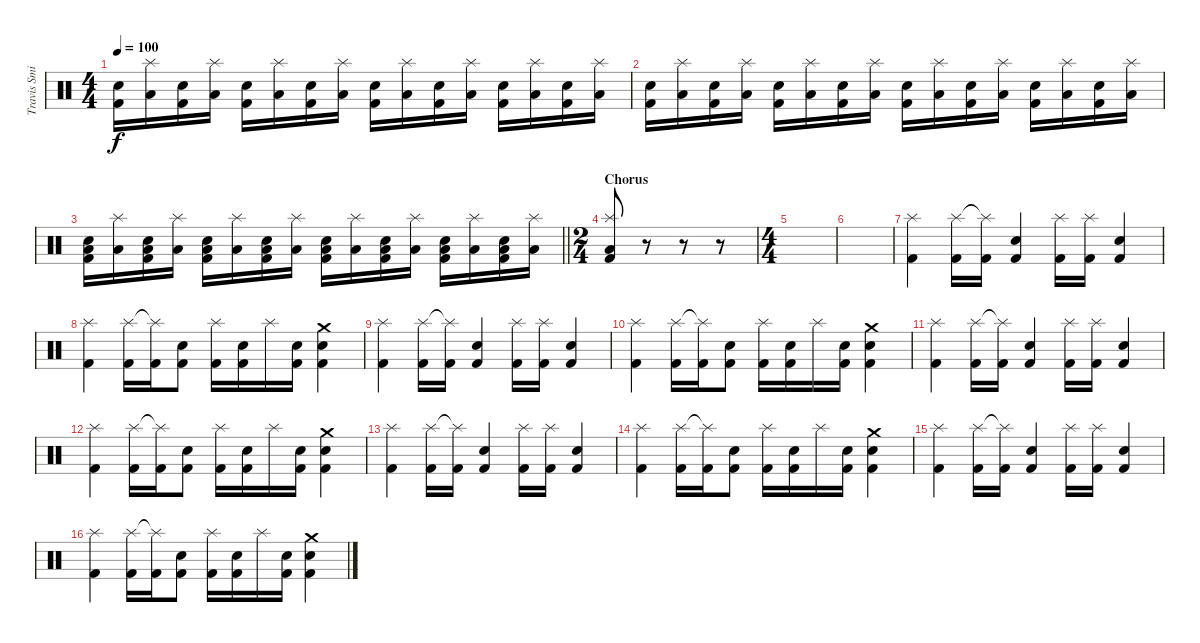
\track ("Travis Smith" "Travis Smi") {instrument percussion}
\staff {score}
\articulation defaults
\ts (4 4)
\tempo 100
\clef neutral
\ks c
("Snare (hit) 2" "Kick (hit) 2").16{dy f} ("Splash (hit)" "Low Floor Tom (hit)").16 ("Snare (hit) 2" "Kick (hit) 2").16 ("Splash (hit)" "Low Floor Tom (hit)").16 ("Snare (hit) 2" "Kick (hit) 2").16 ("Splash (hit)" "Low Floor Tom (hit)").16 ("Snare (hit) 2" "Kick (hit) 2").16 ("Splash (hit)" "Low Floor Tom (hit)").16 ("Snare (hit) 2" "Kick (hit) 2").16 ("Splash (hit)" "Low Floor Tom (hit)").16 ("Snare (hit) 2" "Kick (hit) 2").16 ("Splash (hit)" "Low Floor Tom (hit)").16 ("Snare (hit) 2" "Kick (hit) 2").16 ("Splash (hit)" "Low Floor Tom (hit)").16 ("Snare (hit) 2" "Kick (hit) 2").16 ("Splash (hit)" "Low Floor Tom (hit)").16 |
("Snare (hit) 2" "Kick (hit) 2").16 ("Splash (hit)" "Low Floor Tom (hit)").16 ("Snare (hit) 2" "Kick (hit) 2").16 ("Splash (hit)" "Low Floor Tom (hit)").16 ("Snare (hit) 2" "Kick (hit) 2").16 ("Splash (hit)" "Low Floor Tom (hit)").16 ("Snare (hit) 2" "Kick (hit) 2").16 ("Splash (hit)" "Low Floor Tom (hit)").16 ("Snare (hit) 2" "Kick (hit) 2").16 ("Splash (hit)" "Low Floor Tom (hit)").16 ("Snare (hit) 2" "Kick (hit) 2").16 ("Splash (hit)" "Low Floor Tom (hit)").16 ("Snare (hit) 2" "Kick (hit) 2").16 ("Splash (hit)" "Low Floor Tom (hit)").16 ("Snare (hit) 2" "Kick (hit) 2").16 ("Splash (hit)" "Low Floor Tom (hit)").16 |
\barLineRight lightlight
("Snare (hit) 2" "Low Tom (hit)" "Kick (hit) 2").16 ("Splash (hit)" "Low Tom (hit)").16 ("Snare (hit) 2" "Low Tom (hit)" "Kick (hit) 2").16 ("Splash (hit)" "Low Tom (hit)").16 ("Snare (hit) 2" "Low Tom (hit)" "Kick (hit) 2").16 ("Splash (hit)" "Low Tom (hit)").16 ("Snare (hit) 2" "Low Tom (hit)" "Kick (hit) 2").16 ("Splash (hit)" "Low Tom (hit)").16 ("Snare (hit) 2" "Low Tom (hit)" "Kick (hit) 2").16 ("Splash (hit)" "Low Tom (hit)").16 ("Snare (hit) 2" "Low Tom (hit)" "Kick (hit) 2").16 ("Splash (hit)" "Low Tom (hit)").16 ("Snare (hit) 2" "Low Tom (hit)" "Kick (hit) 2").16 ("Splash (hit)" "Low Tom (hit)").16 ("Snare (hit) 2" "Low Tom (hit)" "Kick (hit) 2").16 ("Splash (hit)" "Low Tom (hit)").16 |
\ts (2 4)
\section ("" "Chorus")
("Splash (hit)" "Low Floor Tom (hit)" "Kick (hit) 2").8 r.8 r.8 r.8 |
\ts (4 4)
|
|
("Splash (hit)" "Kick (hit) 2").4 ("Splash (hit)" "Kick (hit) 2").16 ("Splash (hit)"{t} "Kick (hit) 2").16 ("Snare (hit) 2" "Kick (hit) 2").4 ("Splash (hit)" "Kick (hit) 2").16 ("Splash (hit)" "Kick (hit) 2").16 ("Snare (hit) 2" "Kick (hit) 2").4 |
("Splash (hit)" "Kick (hit) 2").4 ("Splash (hit)" "Kick (hit) 2").16 ("Splash (hit)"{t} "Kick (hit) 2").16 ("Snare (hit) 2" "Kick (hit) 2").8 ("Splash (hit)" "Kick (hit) 2").16 ("Snare (hit) 2" "Kick (hit) 2").16 "Splash (hit)".16 ("Snare (hit) 2" "Kick (hit) 2").16 ("Crash medium (hit)" "Snare (hit) 2" "Kick (hit) 2").4 |
("Splash (hit)" "Kick (hit) 2").4 ("Splash (hit)" "Kick (hit) 2").16 ("Splash (hit)"{t} "Kick (hit) 2").16 ("Snare (hit) 2" "Kick (hit) 2").4 ("Splash (hit)" "Kick (hit) 2").16 ("Splash (hit)" "Kick (hit) 2").16 ("Snare (hit) 2" "Kick (hit) 2").4 |
("Splash (hit)" "Kick (hit) 2").4 ("Splash (hit)" "Kick (hit) 2").16 ("Splash (hit)"{t} "Kick (hit) 2").16 ("Snare (hit) 2" "Kick (hit) 2").8 ("Splash (hit)" "Kick (hit) 2").16 ("Snare (hit) 2" "Kick (hit) 2").16 "Splash (hit)".16 ("Snare (hit) 2" "Kick (hit) 2").16 ("Crash medium (hit)" "Snare (hit) 2" "Kick (hit) 2").4 |
("Splash (hit)" "Kick (hit) 2").4 ("Splash (hit)" "Kick (hit) 2").16 ("Splash (hit)"{t} "Kick (hit) 2").16 ("Snare (hit) 2" "Kick (hit) 2").4 ("Splash (hit)" "Kick (hit) 2").16 ("Splash (hit)" "Kick (hit) 2").16 ("Snare (hit) 2" "Kick (hit) 2").4 |
("Splash (hit)" "Kick (hit) 2").4 ("Splash (hit)" "Kick (hit) 2").16 ("Splash (hit)"{t} "Kick (hit) 2").16 ("Snare (hit) 2" "Kick (hit) 2").8 ("Splash (hit)" "Kick (hit) 2").16 ("Snare (hit) 2" "Kick (hit) 2").16 "Splash (hit)".16 ("Snare (hit) 2" "Kick (hit) 2").16 ("Crash medium (hit)" "Snare (hit) 2" "Kick (hit) 2").4 |
("Splash (hit)" "Kick (hit) 2").4 ("Splash (hit)" "Kick (hit) 2").16 ("Splash (hit)"{t} "Kick (hit) 2").16 ("Snare (hit) 2" "Kick (hit) 2").4 ("Splash (hit)" "Kick (hit) 2").16 ("Splash (hit)" "Kick (hit) 2").16 ("Snare (hit) 2" "Kick (hit) 2").4 |
("Splash (hit)" "Kick (hit) 2").4 ("Splash (hit)" "Kick (hit) 2").16 ("Splash (hit)"{t} "Kick (hit) 2").16 ("Snare (hit) 2" "Kick (hit) 2").8 ("Splash (hit)" "Kick (hit) 2").16 ("Snare (hit) 2" "Kick (hit) 2").16 "Splash (hit)".16 ("Snare (hit) 2" "Kick (hit) 2").16 ("Crash medium (hit)" "Snare (hit) 2" "Kick (hit) 2").4 |
("Splash (hit)" "Kick (hit) 2").4 ("Splash (hit)" "Kick (hit) 2").16 ("Splash (hit)"{t} "Kick (hit) 2").16 ("Snare (hit) 2" "Kick (hit) 2").4 ("Splash (hit)" "Kick (hit) 2").16 ("Splash (hit)" "Kick (hit) 2").16 ("Snare (hit) 2" "Kick (hit) 2").4 |
("Splash (hit)" "Kick (hit) 2").4 ("Splash (hit)" "Kick (hit) 2").16 ("Splash (hit)"{t} "Kick (hit) 2").16 ("Snare (hit) 2" "Kick (hit) 2").8 ("Splash (hit)" "Kick (hit) 2").16 ("Snare (hit) 2" "Kick (hit) 2").16 "Splash (hit)".16 ("Snare (hit) 2" "Kick (hit) 2").16 ("Crash medium (hit)" "Snare (hit) 2" "Kick (hit) 2").4
